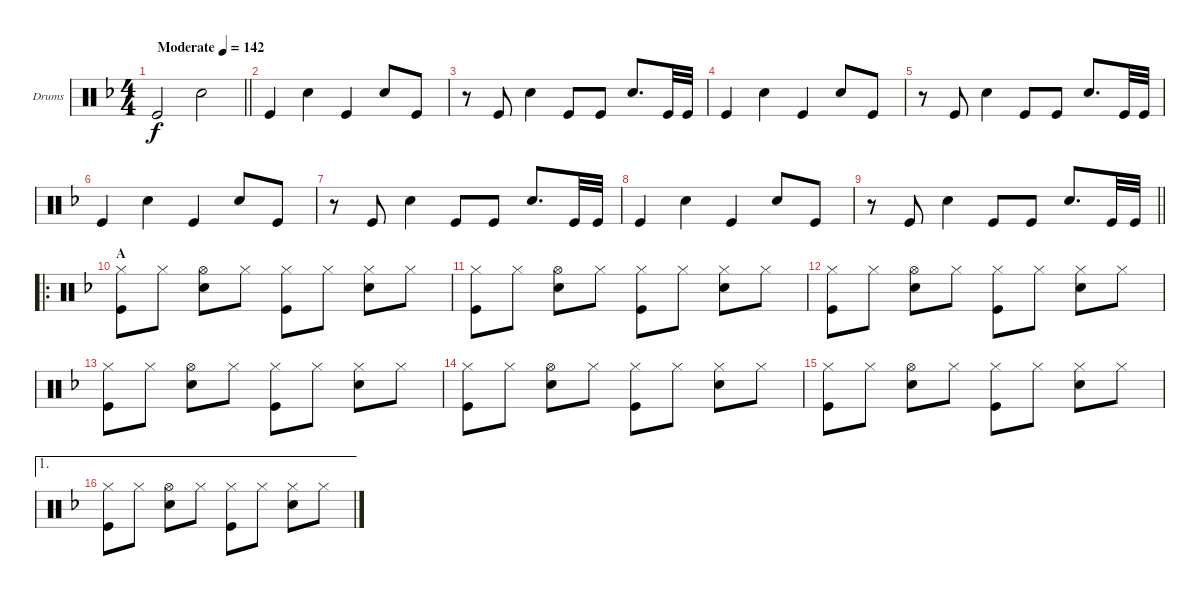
\bracketExtendMode groupsimilarinstruments
\firstSystemTrackNameOrientation horizontal
\otherSystemsTrackNameOrientation horizontal
\track ("Drumkit" "Drums") {instrument percussion}
\staff {score}
\articulation defaults
\ts (4 4)
\beaming (8 2 2 2 2)
\tempo (142 "Moderate")
\clef neutral
\barLineRight lightlight
\ks f "Kick (hit)".2{dy f} "Snare (hit) 2".2
|
"Kick (hit)".4 "Snare (hit) 2".4 "Kick (hit)".4 "Snare (hit) 2".8 "Kick (hit)".8 |
r.8 "Kick (hit)".8 "Snare (hit) 2".4 "Kick (hit)".8 "Kick (hit)".8 "Snare (hit) 2".8{d} "Kick (hit)".32 "Kick (hit)".32 |
"Kick (hit)".4 "Snare (hit) 2".4 "Kick (hit)".4 "Snare (hit) 2".8 "Kick (hit)".8 |
r.8 "Kick (hit)".8 "Snare (hit) 2".4 "Kick (hit)".8 "Kick (hit)".8 "Snare (hit) 2".8{d} "Kick (hit)".32 "Kick (hit)".32 |
"Kick (hit)".4 "Snare (hit) 2".4 "Kick (hit)".4 "Snare (hit) 2".8 "Kick (hit)".8 |
r.8 "Kick (hit)".8 "Snare (hit) 2".4 "Kick (hit)".8 "Kick (hit)".8 "Snare (hit) 2".8{d} "Kick (hit)".32 "Kick (hit)".32 |
"Kick (hit)".4 "Snare (hit) 2".4 "Kick (hit)".4 "Snare (hit) 2".8 "Kick (hit)".8 |
\barLineRight lightlight
r.8 "Kick (hit)".8 "Snare (hit) 2".4 "Kick (hit)".8 "Kick (hit)".8 "Snare (hit) 2".8{d} "Kick (hit)".32 "Kick (hit)".32 |
\ro
\section ("" "A")
("Hi-Hat (closed)" "Kick (hit)").8 "Hi-Hat (closed)".8 ("Hi-Hat (open)" "Snare (hit) 2").8 "Hi-Hat (closed)".8 ("Hi-Hat (closed)" "Kick (hit)").8 "Hi-Hat (closed)".8 ("Hi-Hat (closed)" "Snare (hit) 2").8 "Hi-Hat (closed)".8 |
("Hi-Hat (closed)" "Kick (hit)").8 "Hi-Hat (closed)".8 ("Hi-Hat (open)" "Snare (hit) 2").8 "Hi-Hat (closed)".8 ("Hi-Hat (closed)" "Kick (hit)").8 "Hi-Hat (closed)".8 ("Hi-Hat (closed)" "Snare (hit) 2").8 "Hi-Hat (closed)".8 |
("Hi-Hat (closed)" "Kick (hit)").8 "Hi-Hat (closed)".8 ("Hi-Hat (open)" "Snare (hit) 2").8 "Hi-Hat (closed)".8 ("Hi-Hat (closed)" "Kick (hit)").8 "Hi-Hat (closed)".8 ("Hi-Hat (closed)" "Snare (hit) 2").8 "Hi-Hat (closed)".8 |
("Hi-Hat (closed)" "Kick (hit)").8 "Hi-Hat (closed)".8 ("Hi-Hat (open)" "Snare (hit) 2").8 "Hi-Hat (closed)".8 ("Hi-Hat (closed)" "Kick (hit)").8 "Hi-Hat (closed)".8 ("Hi-Hat (closed)" "Snare (hit) 2").8 "Hi-Hat (closed)".8 |
("Hi-Hat (closed)" "Kick (hit)").8 "Hi-Hat (closed)".8 ("Hi-Hat (open)" "Snare (hit) 2").8 "Hi-Hat (closed)".8 ("Hi-Hat (closed)" "Kick (hit)").8 "Hi-Hat (closed)".8 ("Hi-Hat (closed)" "Snare (hit) 2").8 "Hi-Hat (closed)".8 |
("Hi-Hat (closed)" "Kick (hit)").8 "Hi-Hat (closed)".8 ("Hi-Hat (open)" "Snare (hit) 2").8 "Hi-Hat (closed)".8 ("Hi-Hat (closed)" "Kick (hit)").8 "Hi-Hat (closed)".8 ("Hi-Hat (closed)" "Snare (hit) 2").8 "Hi-Hat (closed)".8 |
\ae 1
("Hi-Hat (closed)" "Kick (hit)").8 "Hi-Hat (closed)".8 ("Hi-Hat (open)" "Snare (hit) 2").8 "Hi-Hat (closed)".8 ("Hi-Hat (closed)" "Kick (hit)").8 "Hi-Hat (closed)".8 ("Hi-Hat (closed)" "Snare (hit) 2").8 "Hi-Hat (closed)".8
